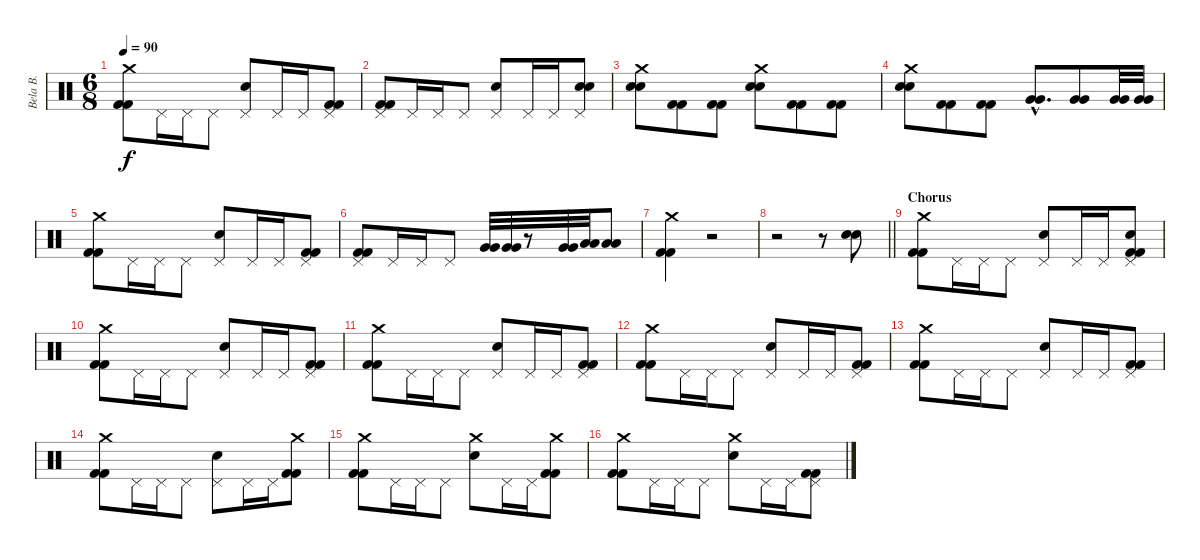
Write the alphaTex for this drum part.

\track ("Bela B." "Bela B.") {instrument percussion}
\staff {score}
\articulation defaults
\ts (6 8)
\tempo 90
\clef neutral
\ks aminor
("Crash medium (hit)" "Kick (hit) 2" "Kick (hit) 2").8{dy f} "Pedal Hi-Hat (hit)".16 "Pedal Hi-Hat (hit)".16 "Pedal Hi-Hat (hit)".8 ("Pedal Hi-Hat (hit)" "Snare (hit) 2").8 "Pedal Hi-Hat (hit)".16 "Pedal Hi-Hat (hit)".16 ("Pedal Hi-Hat (hit)" "Kick (hit) 2" "Kick (hit) 2").8 |
("Pedal Hi-Hat (hit)" "Kick (hit) 2" "Kick (hit) 2").8 "Pedal Hi-Hat (hit)".16 "Pedal Hi-Hat (hit)".16 "Pedal Hi-Hat (hit)".8 ("Pedal Hi-Hat (hit)" "Snare (hit) 2").8 "Pedal Hi-Hat (hit)".16 "Pedal Hi-Hat (hit)".16 ("Pedal Hi-Hat (hit)" "Electric Snare (hit)" "Snare (hit) 2").8 |
("Crash medium (hit)" "Electric Snare (hit)" "Snare (hit) 2").8 ("Kick (hit) 2" "Kick (hit) 2").8 ("Kick (hit) 2" "Kick (hit) 2").8 ("Crash medium (hit)" "Electric Snare (hit)" "Snare (hit) 2").8 ("Kick (hit) 2" "Kick (hit) 2").8 ("Kick (hit) 2" "Kick (hit) 2").8 |
("Crash medium (hit)" "Electric Snare (hit)" "Snare (hit) 2").8 ("Kick (hit) 2" "Kick (hit) 2").8 ("Kick (hit) 2" "Kick (hit) 2").8 ("Very Low Tom (hit)"{hac} "Very Low Tom (hit)"{hac}).8{d} ("Very Low Tom (hit)" "Very Low Tom (hit)").8 ("Very Low Tom (hit)" "Very Low Tom (hit)").32 ("Very Low Tom (hit)" "Very Low Tom (hit)").32 |
("Crash medium (hit)" "Kick (hit) 2" "Kick (hit) 2").8 "Pedal Hi-Hat (hit)".16 "Pedal Hi-Hat (hit)".16 "Pedal Hi-Hat (hit)".8 ("Pedal Hi-Hat (hit)" "Snare (hit) 2").8 "Pedal Hi-Hat (hit)".16 "Pedal Hi-Hat (hit)".16 ("Pedal Hi-Hat (hit)" "Kick (hit) 2" "Kick (hit) 2").8 |
("Pedal Hi-Hat (hit)" "Kick (hit) 2" "Kick (hit) 2").8 "Pedal Hi-Hat (hit)".16 "Pedal Hi-Hat (hit)".16 "Pedal Hi-Hat (hit)".8 ("Very Low Tom (hit)" "Very Low Tom (hit)").32 ("Very Low Tom (hit)" "Very Low Tom (hit)").32 r.8 ("Very Low Tom (hit)" "Very Low Tom (hit)").32 ("Low Tom (hit)" "Low Tom (hit)").32 ("Low Tom (hit)" "Low Tom (hit)").8 |
("Crash medium (hit)" "Kick (hit) 2" "Kick (hit) 2").4 r.2 |
\barLineRight lightlight
r.2 r.8 ("Electric Snare (hit)" "Snare (hit) 2").8 |
\section ("" "Chorus")
("Crash medium (hit)" "Kick (hit) 2" "Kick (hit) 2").8 "Pedal Hi-Hat (hit)".16 "Pedal Hi-Hat (hit)".16 "Pedal Hi-Hat (hit)".8 ("Pedal Hi-Hat (hit)" "Snare (hit) 2").8 "Pedal Hi-Hat (hit)".16 "Pedal Hi-Hat (hit)".16 ("Pedal Hi-Hat (hit)" "Snare (hit) 2" "Kick (hit) 2" "Kick (hit) 2").8 |
("Crash medium (hit)" "Kick (hit) 2" "Kick (hit) 2").8 "Pedal Hi-Hat (hit)".16 "Pedal Hi-Hat (hit)".16 "Pedal Hi-Hat (hit)".8 ("Pedal Hi-Hat (hit)" "Snare (hit) 2").8 "Pedal Hi-Hat (hit)".16 "Pedal Hi-Hat (hit)".16 ("Pedal Hi-Hat (hit)" "Kick (hit) 2" "Kick (hit) 2").8 |
("Crash medium (hit)" "Kick (hit) 2" "Kick (hit) 2").8 "Pedal Hi-Hat (hit)".16 "Pedal Hi-Hat (hit)".16 "Pedal Hi-Hat (hit)".8 ("Pedal Hi-Hat (hit)" "Snare (hit) 2").8 "Pedal Hi-Hat (hit)".16 "Pedal Hi-Hat (hit)".16 ("Pedal Hi-Hat (hit)" "Kick (hit) 2" "Kick (hit) 2").8 |
("Crash medium (hit)" "Kick (hit) 2" "Kick (hit) 2").8 "Pedal Hi-Hat (hit)".16 "Pedal Hi-Hat (hit)".16 "Pedal Hi-Hat (hit)".8 ("Pedal Hi-Hat (hit)" "Snare (hit) 2").8 "Pedal Hi-Hat (hit)".16 "Pedal Hi-Hat (hit)".16 ("Pedal Hi-Hat (hit)" "Kick (hit) 2" "Kick (hit) 2").8 |
("Crash medium (hit)" "Kick (hit) 2" "Kick (hit) 2").8 "Pedal Hi-Hat (hit)".16 "Pedal Hi-Hat (hit)".16 "Pedal Hi-Hat (hit)".8 ("Pedal Hi-Hat (hit)" "Snare (hit) 2").8 "Pedal Hi-Hat (hit)".16 "Pedal Hi-Hat (hit)".16 ("Pedal Hi-Hat (hit)" "Kick (hit) 2" "Kick (hit) 2").8 |
("Crash medium (hit)" "Kick (hit) 2" "Kick (hit) 2").8 "Pedal Hi-Hat (hit)".16 "Pedal Hi-Hat (hit)".16 "Pedal Hi-Hat (hit)".8 ("Pedal Hi-Hat (hit)" "Snare (hit) 2").8 "Pedal Hi-Hat (hit)".16 "Pedal Hi-Hat (hit)".16 ("Crash medium (hit)" "Kick (hit) 2" "Kick (hit) 2").8 |
("Crash medium (hit)" "Kick (hit) 2" "Kick (hit) 2").8 "Pedal Hi-Hat (hit)".16 "Pedal Hi-Hat (hit)".16 "Pedal Hi-Hat (hit)".8 ("Crash medium (hit)" "Snare (hit) 2").8 "Pedal Hi-Hat (hit)".16 "Pedal Hi-Hat (hit)".16 ("Crash medium (hit)" "Kick (hit) 2" "Kick (hit) 2").8 |
("Crash medium (hit)" "Kick (hit) 2" "Kick (hit) 2").8 "Pedal Hi-Hat (hit)".16 "Pedal Hi-Hat (hit)".16 "Pedal Hi-Hat (hit)".8 ("Crash medium (hit)" "Snare (hit) 2").8 "Pedal Hi-Hat (hit)".16 "Pedal Hi-Hat (hit)".16 ("Pedal Hi-Hat (hit)" "Kick (hit) 2" "Kick (hit) 2").8
